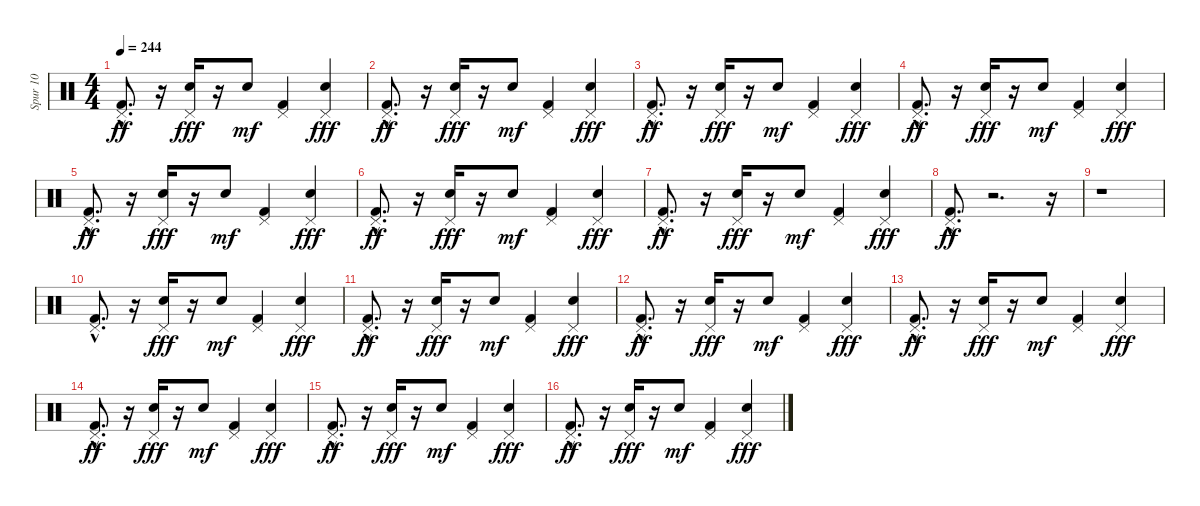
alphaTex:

\track ("Spur 10" "Spur 10") {instrument percussion}
\staff {score}
\articulation defaults
\ts (4 4)
\tempo 244
\clef neutral
\ks c
("Pedal Hi-Hat (hit)" "Kick (hit) 2"{hac}).8{d dy ff} r.16 ("Pedal Hi-Hat (hit)" "Electric Snare (hit)").16{dy fff} r.16 "Electric Snare (hit)".8{dy mf} ("Pedal Hi-Hat (hit)" "Kick (hit) 2").4 ("Pedal Hi-Hat (hit)" "Electric Snare (hit)").4{dy fff} |
("Pedal Hi-Hat (hit)" "Kick (hit) 2"{hac}).8{d dy ff} r.16 ("Pedal Hi-Hat (hit)" "Electric Snare (hit)").16{dy fff} r.16 "Electric Snare (hit)".8{dy mf} ("Pedal Hi-Hat (hit)" "Kick (hit) 2").4 ("Pedal Hi-Hat (hit)" "Electric Snare (hit)").4{dy fff} |
("Pedal Hi-Hat (hit)" "Kick (hit) 2"{hac}).8{d dy ff} r.16 ("Pedal Hi-Hat (hit)" "Electric Snare (hit)").16{dy fff} r.16 "Electric Snare (hit)".8{dy mf} ("Pedal Hi-Hat (hit)" "Kick (hit) 2").4 ("Pedal Hi-Hat (hit)" "Electric Snare (hit)").4{dy fff} |
("Pedal Hi-Hat (hit)" "Kick (hit) 2"{hac}).8{d dy ff} r.16 ("Pedal Hi-Hat (hit)" "Electric Snare (hit)").16{dy fff} r.16 "Electric Snare (hit)".8{dy mf} ("Pedal Hi-Hat (hit)" "Kick (hit) 2").4 ("Pedal Hi-Hat (hit)" "Electric Snare (hit)").4{dy fff} |
("Pedal Hi-Hat (hit)" "Kick (hit) 2"{hac}).8{d dy ff} r.16 ("Pedal Hi-Hat (hit)" "Electric Snare (hit)").16{dy fff} r.16 "Electric Snare (hit)".8{dy mf} ("Pedal Hi-Hat (hit)" "Kick (hit) 2").4 ("Pedal Hi-Hat (hit)" "Electric Snare (hit)").4{dy fff} |
("Pedal Hi-Hat (hit)" "Kick (hit) 2"{hac}).8{d dy ff} r.16 ("Pedal Hi-Hat (hit)" "Electric Snare (hit)").16{dy fff} r.16 "Electric Snare (hit)".8{dy mf} ("Pedal Hi-Hat (hit)" "Kick (hit) 2").4 ("Pedal Hi-Hat (hit)" "Electric Snare (hit)").4{dy fff} |
("Pedal Hi-Hat (hit)" "Kick (hit) 2"{hac}).8{d dy ff} r.16 ("Pedal Hi-Hat (hit)" "Electric Snare (hit)").16{dy fff} r.16 "Electric Snare (hit)".8{dy mf} ("Pedal Hi-Hat (hit)" "Kick (hit) 2").4 ("Pedal Hi-Hat (hit)" "Electric Snare (hit)").4{dy fff} |
("Pedal Hi-Hat (hit)" "Kick (hit) 2"{hac}).8{d dy ff} r.2{d} r.16 |
r.1 |
("Pedal Hi-Hat (hit)" "Kick (hit) 2"{hac}).8{d} r.16 ("Pedal Hi-Hat (hit)" "Electric Snare (hit)").16{dy fff} r.16 "Electric Snare (hit)".8{dy mf} ("Pedal Hi-Hat (hit)" "Kick (hit) 2").4 ("Pedal Hi-Hat (hit)" "Electric Snare (hit)").4{dy fff} |
("Pedal Hi-Hat (hit)" "Kick (hit) 2"{hac}).8{d dy ff} r.16 ("Pedal Hi-Hat (hit)" "Electric Snare (hit)").16{dy fff} r.16 "Electric Snare (hit)".8{dy mf} ("Pedal Hi-Hat (hit)" "Kick (hit) 2").4 ("Pedal Hi-Hat (hit)" "Electric Snare (hit)").4{dy fff} |
("Pedal Hi-Hat (hit)" "Kick (hit) 2"{hac}).8{d dy ff} r.16 ("Pedal Hi-Hat (hit)" "Electric Snare (hit)").16{dy fff} r.16 "Electric Snare (hit)".8{dy mf} ("Pedal Hi-Hat (hit)" "Kick (hit) 2").4 ("Pedal Hi-Hat (hit)" "Electric Snare (hit)").4{dy fff} |
("Pedal Hi-Hat (hit)" "Kick (hit) 2"{hac}).8{d dy ff} r.16 ("Pedal Hi-Hat (hit)" "Electric Snare (hit)").16{dy fff} r.16 "Electric Snare (hit)".8{dy mf} ("Pedal Hi-Hat (hit)" "Kick (hit) 2").4 ("Pedal Hi-Hat (hit)" "Electric Snare (hit)").4{dy fff} |
("Pedal Hi-Hat (hit)" "Kick (hit) 2"{hac}).8{d dy ff} r.16 ("Pedal Hi-Hat (hit)" "Electric Snare (hit)").16{dy fff} r.16 "Electric Snare (hit)".8{dy mf} ("Pedal Hi-Hat (hit)" "Kick (hit) 2").4 ("Pedal Hi-Hat (hit)" "Electric Snare (hit)").4{dy fff} |
("Pedal Hi-Hat (hit)" "Kick (hit) 2"{hac}).8{d dy ff} r.16 ("Pedal Hi-Hat (hit)" "Electric Snare (hit)").16{dy fff} r.16 "Electric Snare (hit)".8{dy mf} ("Pedal Hi-Hat (hit)" "Kick (hit) 2").4 ("Pedal Hi-Hat (hit)" "Electric Snare (hit)").4{dy fff} |
("Pedal Hi-Hat (hit)" "Kick (hit) 2"{hac}).8{d dy ff} r.16 ("Pedal Hi-Hat (hit)" "Electric Snare (hit)").16{dy fff} r.16 "Electric Snare (hit)".8{dy mf} ("Pedal Hi-Hat (hit)" "Kick (hit) 2").4 ("Pedal Hi-Hat (hit)" "Electric Snare (hit)").4{dy fff}
